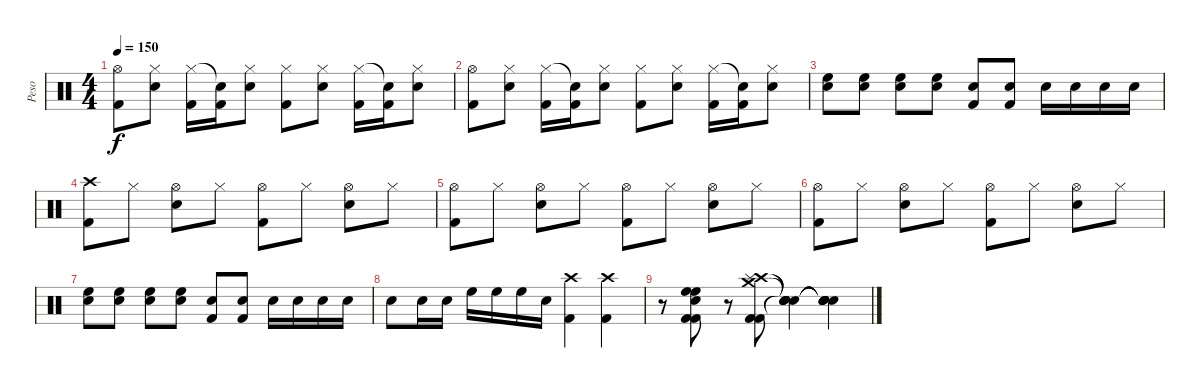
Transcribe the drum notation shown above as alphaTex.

\track ("Peso" "Peso") {instrument percussion}
\staff {score}
\articulation defaults
\ts (4 4)
\tempo 150
\clef neutral
\ks c
("Hi-Hat (open)" "Kick (hit) 2").8{dy f} ("Hi-Hat (closed)" "Snare (hit) 2").8 ("Hi-Hat (closed)" "Kick (hit) 2").16 ("Snare (hit)"{t} "Kick (hit) 2").16 ("Hi-Hat (closed)" "Snare (hit) 2").8 ("Hi-Hat (closed)" "Kick (hit) 2").8 ("Hi-Hat (closed)" "Snare (hit) 2").8 ("Hi-Hat (closed)" "Kick (hit) 2").16 ("Snare (hit)"{t} "Kick (hit) 2").16 ("Hi-Hat (closed)" "Snare (hit) 2").8 |
("Hi-Hat (open)" "Kick (hit) 2").8 ("Hi-Hat (closed)" "Snare (hit) 2").8 ("Hi-Hat (closed)" "Kick (hit) 2").16 ("Snare (hit)"{t} "Kick (hit) 2").16 ("Hi-Hat (closed)" "Snare (hit) 2").8 ("Hi-Hat (closed)" "Kick (hit) 2").8 ("Hi-Hat (closed)" "Snare (hit) 2").8 ("Hi-Hat (closed)" "Kick (hit) 2").16 ("Snare (hit)"{t} "Kick (hit) 2").16 ("Hi-Hat (closed)" "Snare (hit) 2").8 |
("High Floor Tom (hit)" "Snare (hit) 2").8 ("High Floor Tom (hit)" "Snare (hit) 2").8 ("High Floor Tom (hit)" "Snare (hit) 2").8 ("High Floor Tom (hit)" "Snare (hit) 2").8 ("Kick (hit) 2" "Snare (hit) 2").8 ("Kick (hit) 2" "Snare (hit) 2").8 "Snare (hit) 2".16 "Snare (hit) 2".16 "Snare (hit) 2".16 "Snare (hit) 2".16 |
("Crash high (hit)" "Kick (hit) 2").8 "Hi-Hat (closed)"{x}.8 ("Hi-Hat (open)" "Snare (hit) 2").8 "Hi-Hat (closed)"{x}.8 ("Hi-Hat (open)" "Kick (hit) 2").8 "Hi-Hat (closed)"{x}.8 ("Hi-Hat (open)" "Snare (hit) 2").8 "Hi-Hat (closed)"{x}.8 |
("Hi-Hat (open)" "Kick (hit) 2").8 "Hi-Hat (closed)"{x}.8 ("Hi-Hat (open)" "Snare (hit) 2").8 "Hi-Hat (closed)"{x}.8 ("Hi-Hat (open)" "Kick (hit) 2").8 "Hi-Hat (closed)"{x}.8 ("Hi-Hat (open)" "Snare (hit) 2").8 "Hi-Hat (closed)"{x}.8 |
("Hi-Hat (open)" "Kick (hit) 2").8 "Hi-Hat (closed)"{x}.8 ("Hi-Hat (open)" "Snare (hit) 2").8 "Hi-Hat (closed)"{x}.8 ("Hi-Hat (open)" "Kick (hit) 2").8 "Hi-Hat (closed)"{x}.8 ("Hi-Hat (open)" "Snare (hit) 2").8 "Hi-Hat (closed)"{x}.8 |
("High Floor Tom (hit)" "Snare (hit) 2").8 ("High Floor Tom (hit)" "Snare (hit) 2").8 ("High Floor Tom (hit)" "Snare (hit) 2").8 ("High Floor Tom (hit)" "Snare (hit) 2").8 ("Kick (hit) 2" "Snare (hit) 2").8 ("Kick (hit) 2" "Snare (hit) 2").8 "Snare (hit) 2".16 "Snare (hit) 2".16 "Snare (hit) 2".16 "Snare (hit) 2".16 |
"Snare (hit) 2".8 "Snare (hit) 2".16 "Snare (hit) 2".16 "High Floor Tom (hit)".16 "High Floor Tom (hit)".16 "High Floor Tom (hit)".16 "Snare (hit) 2".16 ("Crash high (hit)" "Kick (hit) 2").4 ("Crash high (hit)" "Kick (hit) 2").4 |
r.8 ("High Floor Tom (hit)" "High Floor Tom (hit)" "Snare (hit) 2" "Kick (hit) 2" "Kick (hit) 2").8 r.8 ("Crash high (hit)" "Splash (hit)" "Crash medium (hit)" "Kick (hit) 2" "Kick (hit) 2").8 ("Snare (hit)"{t} "Snare (hit)"{t} "Snare (hit)"{t} "Snare (hit)"{t} "Snare (hit)"{t}).4 ("Snare (hit)"{t} "Snare (hit)"{t} "Snare (hit)"{t} "Snare (hit)"{t} "Snare (hit)"{t}).4
